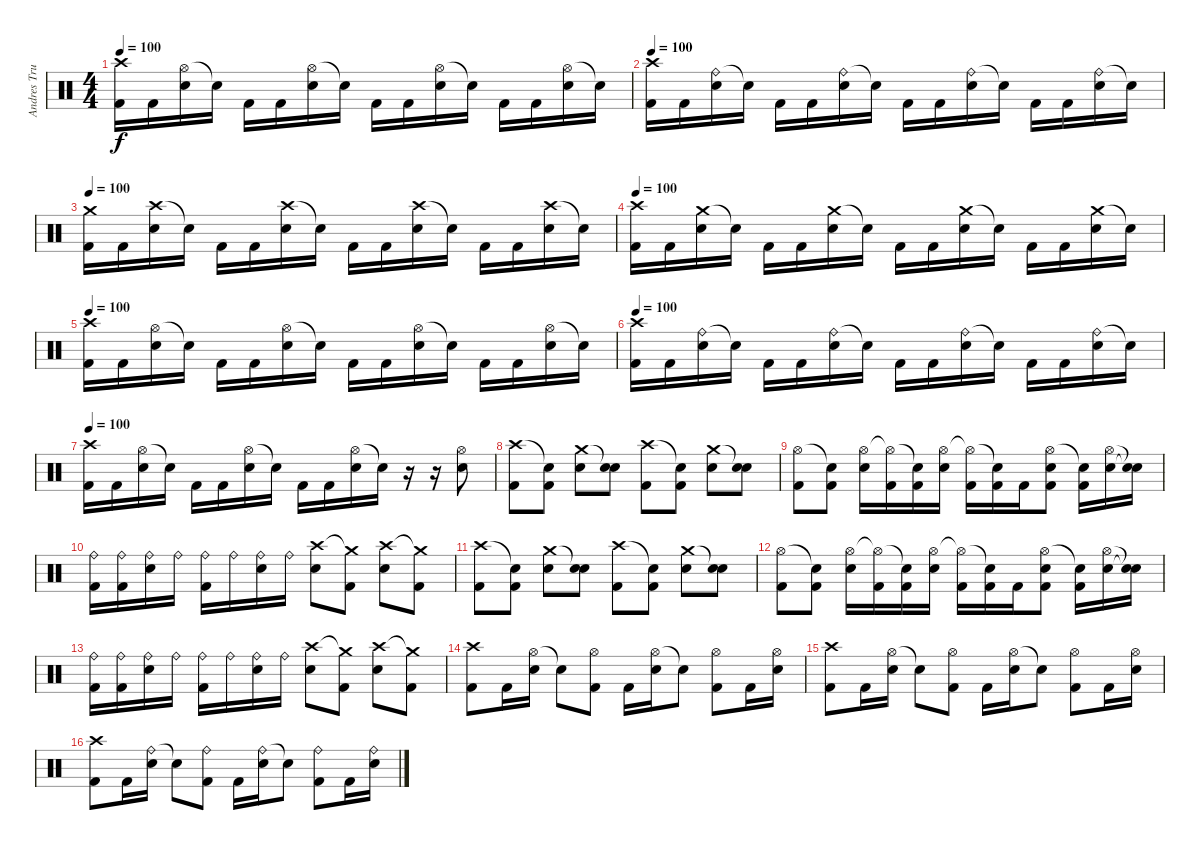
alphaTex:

\track ("Andres Trujillo" "Andres Tru") {instrument percussion}
\staff {score}
\articulation defaults
\ts (4 4)
\tempo 100
\clef neutral
\ks c
("Crash high (hit)" "Kick (hit) 2").16{dy f} "Kick (hit) 2".16 ("Hi-Hat (open)" "Electric Snare (hit)").16 "Snare (hit)"{t}.16 "Kick (hit) 2".16 "Kick (hit) 2".16 ("Hi-Hat (open)" "Electric Snare (hit)").16 "Snare (hit)"{t}.16 "Kick (hit) 2".16 "Kick (hit) 2".16 ("Hi-Hat (open)" "Electric Snare (hit)").16 "Snare (hit)"{t}.16 "Kick (hit) 2".16 "Kick (hit) 2".16 ("Hi-Hat (open)" "Electric Snare (hit)").16 "Snare (hit)"{t}.16 |
\tempo 100
("Crash high (hit)" "Kick (hit) 2").16 "Kick (hit) 2".16 ("Ride (bell)" "Electric Snare (hit)").16 "Snare (hit)"{t}.16 "Kick (hit) 2".16 "Kick (hit) 2".16 ("Ride (bell)" "Electric Snare (hit)").16 "Snare (hit)"{t}.16 "Kick (hit) 2".16 "Kick (hit) 2".16 ("Ride (bell)" "Electric Snare (hit)").16 "Snare (hit)"{t}.16 "Kick (hit) 2".16 "Kick (hit) 2".16 ("Ride (bell)" "Electric Snare (hit)").16 "Snare (hit)"{t}.16 |
\tempo 100
("Crash medium (hit)" "Kick (hit) 2").16 "Kick (hit) 2".16 ("Crash high (hit)" "Electric Snare (hit)").16 "Snare (hit)"{t}.16 "Kick (hit) 2".16 "Kick (hit) 2".16 ("Crash high (hit)" "Electric Snare (hit)").16 "Snare (hit)"{t}.16 "Kick (hit) 2".16 "Kick (hit) 2".16 ("Crash high (hit)" "Electric Snare (hit)").16 "Snare (hit)"{t}.16 "Kick (hit) 2".16 "Kick (hit) 2".16 ("Crash high (hit)" "Electric Snare (hit)").16 "Snare (hit)"{t}.16 |
\tempo 100
("Crash high (hit)" "Kick (hit) 2").16 "Kick (hit) 2".16 ("Crash medium (hit)" "Electric Snare (hit)").16 "Snare (hit)"{t}.16 "Kick (hit) 2".16 "Kick (hit) 2".16 ("Crash medium (hit)" "Electric Snare (hit)").16 "Snare (hit)"{t}.16 "Kick (hit) 2".16 "Kick (hit) 2".16 ("Crash medium (hit)" "Electric Snare (hit)").16 "Snare (hit)"{t}.16 "Kick (hit) 2".16 "Kick (hit) 2".16 ("Crash medium (hit)" "Electric Snare (hit)").16 "Snare (hit)"{t}.16 |
\tempo 100
("Crash high (hit)" "Kick (hit) 2").16 "Kick (hit) 2".16 ("Hi-Hat (open)" "Electric Snare (hit)").16 "Snare (hit)"{t}.16 "Kick (hit) 2".16 "Kick (hit) 2".16 ("Hi-Hat (open)" "Electric Snare (hit)").16 "Snare (hit)"{t}.16 "Kick (hit) 2".16 "Kick (hit) 2".16 ("Hi-Hat (open)" "Electric Snare (hit)").16 "Snare (hit)"{t}.16 "Kick (hit) 2".16 "Kick (hit) 2".16 ("Hi-Hat (open)" "Electric Snare (hit)").16 "Snare (hit)"{t}.16 |
\tempo 100
("Crash high (hit)" "Kick (hit) 2").16 "Kick (hit) 2".16 ("Ride (bell)" "Electric Snare (hit)").16 "Snare (hit)"{t}.16 "Kick (hit) 2".16 "Kick (hit) 2".16 ("Ride (bell)" "Electric Snare (hit)").16 "Snare (hit)"{t}.16 "Kick (hit) 2".16 "Kick (hit) 2".16 ("Ride (bell)" "Electric Snare (hit)").16 "Snare (hit)"{t}.16 "Kick (hit) 2".16 "Kick (hit) 2".16 ("Ride (bell)" "Electric Snare (hit)").16 "Snare (hit)"{t}.16 |
\tempo 100
("Crash high (hit)" "Kick (hit) 2").16 "Kick (hit) 2".16 ("Hi-Hat (open)" "Electric Snare (hit)").16 "Snare (hit)"{t}.16 "Kick (hit) 2".16 "Kick (hit) 2".16 ("Hi-Hat (open)" "Electric Snare (hit)").16 "Snare (hit)"{t}.16 "Kick (hit) 2".16 "Kick (hit) 2".16 ("Hi-Hat (open)" "Electric Snare (hit)").16 "Snare (hit)"{t}.16 r.16 r.16 ("Hi-Hat (open)" "Electric Snare (hit)").8 |
("Crash high (hit)" "Kick (hit) 2").8 ("Snare (hit)"{t} "Kick (hit) 2").8 ("Crash medium (hit)" "Electric Snare (hit)").8 ("Snare (hit)"{t} "Electric Snare (hit)").8 ("Crash high (hit)" "Kick (hit) 2").8 ("Snare (hit)"{t} "Kick (hit) 2").8 ("Crash medium (hit)" "Electric Snare (hit)").8 ("Snare (hit)"{t} "Electric Snare (hit)").8 |
("Hi-Hat (open)" "Kick (hit) 2").8 ("Snare (hit)"{t} "Kick (hit) 2").8 ("Hi-Hat (open)" "Electric Snare (hit)").16 ("Hi-Hat (open)"{t} "Kick (hit) 2").16 ("Snare (hit)"{t} "Kick (hit) 2").16 ("Hi-Hat (open)" "Electric Snare (hit)").16 ("Hi-Hat (open)"{t} "Kick (hit) 2").16 ("Snare (hit)"{t} "Kick (hit) 2").16 "Kick (hit) 2".16 ("Hi-Hat (open)" "Electric Snare (hit)" "Kick (hit) 2").8 ("Snare (hit)"{t} "Kick (hit) 2").16 ("Hi-Hat (open)" "Electric Snare (hit)").16 ("Snare (hit)"{t} "Snare (hit)"{t}).16 |
("Ride (bell)" "Kick (hit) 2").16 ("Ride (bell)" "Kick (hit) 2").16 ("Ride (bell)" "Electric Snare (hit)").16 "Ride (bell)".16 ("Ride (bell)" "Kick (hit) 2").16 "Ride (bell)".16 ("Ride (bell)" "Electric Snare (hit)").16 "Ride (bell)".16 ("Crash high (hit)" "Electric Snare (hit)").8 ("Crash medium (hit)"{t} "Kick (hit) 2").8 ("Crash high (hit)" "Electric Snare (hit)").8 ("Crash medium (hit)"{t} "Kick (hit) 2").8 |
("Crash high (hit)" "Kick (hit) 2").8 ("Snare (hit)"{t} "Kick (hit) 2").8 ("Crash medium (hit)" "Electric Snare (hit)").8 ("Snare (hit)"{t} "Electric Snare (hit)").8 ("Crash high (hit)" "Kick (hit) 2").8 ("Snare (hit)"{t} "Kick (hit) 2").8 ("Crash medium (hit)" "Electric Snare (hit)").8 ("Snare (hit)"{t} "Electric Snare (hit)").8 |
("Hi-Hat (open)" "Kick (hit) 2").8 ("Snare (hit)"{t} "Kick (hit) 2").8 ("Hi-Hat (open)" "Electric Snare (hit)").16 ("Hi-Hat (open)"{t} "Kick (hit) 2").16 ("Snare (hit)"{t} "Kick (hit) 2").16 ("Hi-Hat (open)" "Electric Snare (hit)").16 ("Hi-Hat (open)"{t} "Kick (hit) 2").16 ("Snare (hit)"{t} "Kick (hit) 2").16 "Kick (hit) 2".16 ("Hi-Hat (open)" "Electric Snare (hit)" "Kick (hit) 2").8 ("Snare (hit)"{t} "Kick (hit) 2").16 ("Hi-Hat (open)" "Electric Snare (hit)").16 ("Snare (hit)"{t} "Snare (hit)"{t}).16 |
("Ride (bell)" "Kick (hit) 2").16 ("Ride (bell)" "Kick (hit) 2").16 ("Ride (bell)" "Electric Snare (hit)").16 "Ride (bell)".16 ("Ride (bell)" "Kick (hit) 2").16 "Ride (bell)".16 ("Ride (bell)" "Electric Snare (hit)").16 "Ride (bell)".16 ("Crash high (hit)" "Electric Snare (hit)").8 ("Crash medium (hit)"{t} "Kick (hit) 2").8 ("Crash high (hit)" "Electric Snare (hit)").8 ("Crash medium (hit)"{t} "Kick (hit) 2").8 |
("Crash high (hit)" "Kick (hit) 2").8 "Kick (hit) 2".16 ("Hi-Hat (open)" "Electric Snare (hit)").16 "Snare (hit)"{t}.8 ("Hi-Hat (open)" "Kick (hit) 2").8 "Kick (hit) 2".16 ("Hi-Hat (open)" "Electric Snare (hit)").16 "Snare (hit)"{t}.8 ("Hi-Hat (open)" "Kick (hit) 2").8 "Kick (hit) 2".16 ("Hi-Hat (open)" "Electric Snare (hit)").16 |
("Crash high (hit)" "Kick (hit) 2").8 "Kick (hit) 2".16 ("Hi-Hat (open)" "Electric Snare (hit)").16 "Snare (hit)"{t}.8 ("Hi-Hat (open)" "Kick (hit) 2").8 "Kick (hit) 2".16 ("Hi-Hat (open)" "Electric Snare (hit)").16 "Snare (hit)"{t}.8 ("Hi-Hat (open)" "Kick (hit) 2").8 "Kick (hit) 2".16 ("Hi-Hat (open)" "Electric Snare (hit)").16 |
("Crash high (hit)" "Kick (hit) 2").8 "Kick (hit) 2".16 ("Ride (bell)" "Electric Snare (hit)").16 "Snare (hit)"{t}.8 ("Ride (bell)" "Kick (hit) 2").8 "Kick (hit) 2".16 ("Ride (bell)" "Electric Snare (hit)").16 "Snare (hit)"{t}.8 ("Ride (bell)" "Kick (hit) 2").8 "Kick (hit) 2".16 ("Ride (bell)" "Electric Snare (hit)").16
